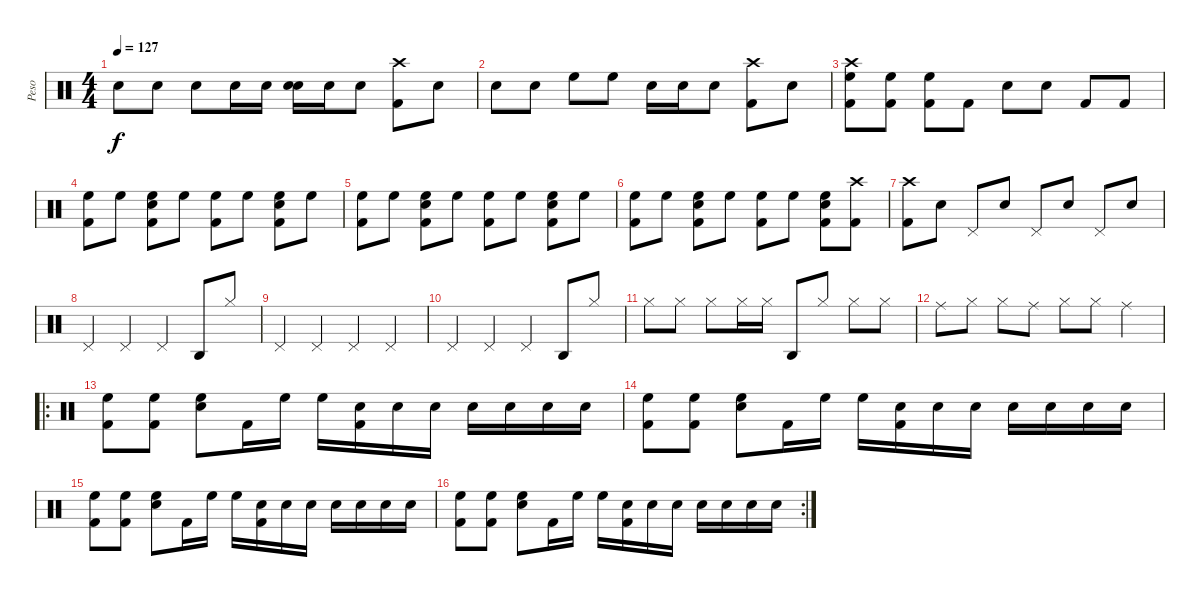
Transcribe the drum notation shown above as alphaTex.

\track ("Peso" "Peso") {instrument percussion}
\staff {score}
\articulation defaults
\ts (4 4)
\tempo 127
\clef neutral
\ks c "Snare (hit) 2".8{dy f} "Snare (hit) 2".8 "Snare (hit)"{x}.8 "Snare (hit) 2".16 "Snare (hit) 2"{x}.16
("Snare (hit) 2" "Snare (hit) 2").16 "Snare (hit)"{x}.16 "Snare (hit)"{x}.8 ("Crash high (hit)" "Kick (hit) 2").8 "Snare (hit)"{x}.8 |
"Snare (hit) 2".8 "Snare (hit) 2"{x}.8 "High Floor Tom (hit)".8 "High Floor Tom (hit)".8 "Snare (hit) 2".16 "Snare (hit) 2".16 "Snare (hit)"{x}.8 ("Crash high (hit)" "Kick (hit) 2").8 "Snare (hit)"{x}.8 |
("Crash high (hit)" "High Floor Tom (hit)" "Kick (hit) 2").8 ("High Floor Tom (hit)" "Kick (hit) 2").8 ("High Floor Tom (hit)" "Kick (hit) 2").8 "Kick (hit) 2".8 "Snare (hit) 2".8 "Snare (hit) 2".8 "Kick (hit) 2".8 "Kick (hit) 2".8 |
("High Floor Tom (hit)" "Kick (hit) 2").8 "High Floor Tom (hit)".8 ("High Floor Tom (hit)" "Snare (hit) 2" "Kick (hit) 2").8 "High Floor Tom (hit)".8 ("High Floor Tom (hit)" "Kick (hit) 2").8 "High Floor Tom (hit)".8 ("High Floor Tom (hit)" "Snare (hit) 2" "Kick (hit) 2").8 "High Floor Tom (hit)".8 |
("High Floor Tom (hit)" "Kick (hit) 2").8 "High Floor Tom (hit)".8 ("High Floor Tom (hit)" "Snare (hit) 2" "Kick (hit) 2").8 "High Floor Tom (hit)".8 ("High Floor Tom (hit)" "Kick (hit) 2").8 "High Floor Tom (hit)".8 ("High Floor Tom (hit)" "Snare (hit) 2" "Kick (hit) 2").8 "High Floor Tom (hit)".8 |
("High Floor Tom (hit)" "Kick (hit) 2").8 "High Floor Tom (hit)".8 ("High Floor Tom (hit)" "Snare (hit) 2" "Kick (hit) 2").8 "High Floor Tom (hit)".8 ("High Floor Tom (hit)" "Kick (hit) 2").8 "High Floor Tom (hit)".8 ("High Floor Tom (hit)" "Snare (hit) 2" "Kick (hit) 2").8 ("Crash high (hit)" "Kick (hit) 2").8 |
("Crash high (hit)" "Kick (hit) 2").8 "Snare (hit)"{x}.8 "Pedal Hi-Hat (hit)".8 "Snare (hit)"{x}.8 "Pedal Hi-Hat (hit)".8 "Snare (hit)"{x}.8 "Pedal Hi-Hat (hit)".8 "Snare (hit)"{x}.8 |
"Pedal Hi-Hat (hit)".4 "Pedal Hi-Hat (hit)".4 "Pedal Hi-Hat (hit)".4 "Agogo high (hit)".8 "Hi-Hat (closed)".8 |
"Pedal Hi-Hat (hit)".4 "Pedal Hi-Hat (hit)".4 "Pedal Hi-Hat (hit)".4 "Pedal Hi-Hat (hit)".4 |
"Pedal Hi-Hat (hit)".4 "Pedal Hi-Hat (hit)".4 "Pedal Hi-Hat (hit)".4 "Agogo high (hit)".8 "Hi-Hat (closed)".8 |
"Hi-Hat (closed)".8 "Hi-Hat (closed)"{x}.8 "Hi-Hat (closed)".8 "Hi-Hat (closed)".16 "Hi-Hat (closed)".16 "Agogo high (hit)".8 "Hi-Hat (closed)"{x}.8 "Hi-Hat (closed)".8 "Hi-Hat (closed)"{x}.8 |
"Ride (middle)".8 "Hi-Hat (closed)".8 "Hi-Hat (closed)".8 "Ride (middle)".8 "Hi-Hat (closed)".8 "Hi-Hat (closed)".8 "Ride (middle)".4 |
\ro
("High Floor Tom (hit)" "Kick (hit) 2").8 ("High Floor Tom (hit)" "Kick (hit) 2").8 ("High Floor Tom (hit)" "Snare (hit) 2").8 "Kick (hit) 2".16 "High Floor Tom (hit)".16 "High Floor Tom (hit)".16 ("Snare (hit) 2"{x} "Kick (hit) 2"{x}).16 "Snare (hit) 2".16 "Snare (hit) 2"{x}.16 "Snare (hit) 2".16 "Snare (hit) 2"{x}.16 "Snare (hit) 2"{x}.16 "Snare (hit) 2"{x}.16 |
("High Floor Tom (hit)" "Kick (hit) 2").8 ("High Floor Tom (hit)" "Kick (hit) 2").8 ("High Floor Tom (hit)" "Snare (hit) 2").8 "Kick (hit) 2".16 "High Floor Tom (hit)".16 "High Floor Tom (hit)".16 ("Snare (hit) 2"{x} "Kick (hit) 2").16 "Snare (hit) 2".16 "Snare (hit) 2"{x}.16 "Snare (hit) 2".16 "Snare (hit) 2"{x}.16 "Snare (hit) 2"{x}.16 "Snare (hit) 2"{x}.16 |
("High Floor Tom (hit)" "Kick (hit) 2").8 ("High Floor Tom (hit)" "Kick (hit) 2").8 ("High Floor Tom (hit)" "Snare (hit) 2").8 "Kick (hit) 2".16 "High Floor Tom (hit)".16 "High Floor Tom (hit)".16 ("Snare (hit) 2"{x} "Kick (hit) 2"{x}).16 "Snare (hit) 2".16 "Snare (hit) 2"{x}.16 "Snare (hit) 2".16 "Snare (hit) 2"{x}.16 "Snare (hit) 2"{x}.16 "Snare (hit) 2"{x}.16 |
\rc 2
("High Floor Tom (hit)" "Kick (hit) 2").8 ("High Floor Tom (hit)" "Kick (hit) 2").8 ("High Floor Tom (hit)" "Snare (hit) 2").8 "Kick (hit) 2".16 "High Floor Tom (hit)".16 "High Floor Tom (hit)".16 ("Snare (hit) 2"{x} "Kick (hit) 2").16 "Snare (hit) 2".16 "Snare (hit) 2"{x}.16 "Snare (hit) 2".16 "Snare (hit) 2"{x}.16 "Snare (hit) 2"{x}.16 "Snare (hit) 2"{x}.16
